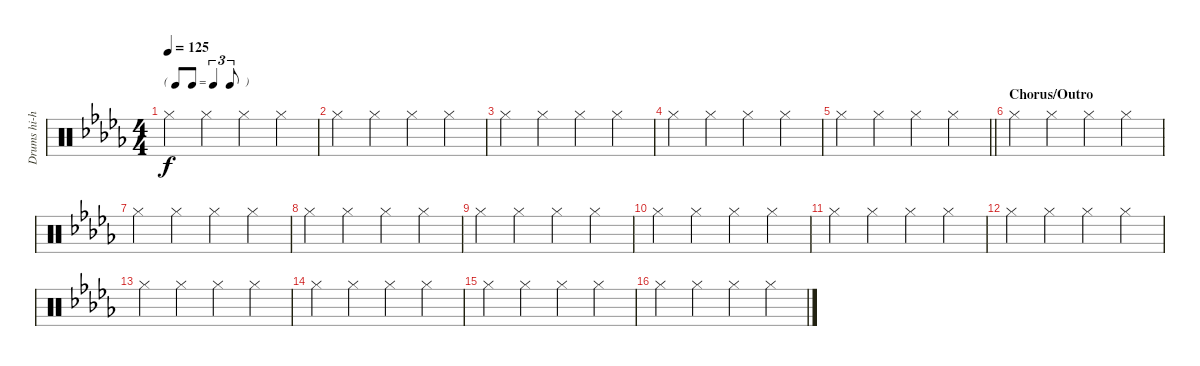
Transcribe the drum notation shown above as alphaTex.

\track ("Drums hi-hat" "Drums hi-h") {instrument percussion}
\staff {score}
\articulation defaults
\ts (4 4)
\tf triplet8th
\tempo 125
\clef neutral
\ks db "Hi-Hat (closed)".4{dy f} "Hi-Hat (closed)".4 "Hi-Hat (closed)".4 "Hi-Hat (closed)".4
|
"Hi-Hat (closed)".4 "Hi-Hat (closed)".4 "Hi-Hat (closed)".4 "Hi-Hat (closed)".4 |
"Hi-Hat (closed)".4 "Hi-Hat (closed)".4 "Hi-Hat (closed)".4 "Hi-Hat (closed)".4 |
"Hi-Hat (closed)".4 "Hi-Hat (closed)".4 "Hi-Hat (closed)".4 "Hi-Hat (closed)".4 |
\barLineRight lightlight "Hi-Hat (closed)".4 "Hi-Hat (closed)".4 "Hi-Hat (closed)".4 "Hi-Hat (closed)".4
|
\section ("" "Chorus/Outro")
"Hi-Hat (closed)".4 "Hi-Hat (closed)".4 "Hi-Hat (closed)".4 "Hi-Hat (closed)".4 |
"Hi-Hat (closed)".4 "Hi-Hat (closed)".4 "Hi-Hat (closed)".4 "Hi-Hat (closed)".4 |
"Hi-Hat (closed)".4 "Hi-Hat (closed)".4 "Hi-Hat (closed)".4 "Hi-Hat (closed)".4 |
"Hi-Hat (closed)".4 "Hi-Hat (closed)".4 "Hi-Hat (closed)".4 "Hi-Hat (closed)".4 |
"Hi-Hat (closed)".4 "Hi-Hat (closed)".4 "Hi-Hat (closed)".4 "Hi-Hat (closed)".4 |
"Hi-Hat (closed)".4 "Hi-Hat (closed)".4 "Hi-Hat (closed)".4 "Hi-Hat (closed)".4 |
"Hi-Hat (closed)".4 "Hi-Hat (closed)".4 "Hi-Hat (closed)".4 "Hi-Hat (closed)".4 |
"Hi-Hat (closed)".4 "Hi-Hat (closed)".4 "Hi-Hat (closed)".4 "Hi-Hat (closed)".4 |
"Hi-Hat (closed)".4 "Hi-Hat (closed)".4 "Hi-Hat (closed)".4 "Hi-Hat (closed)".4 |
"Hi-Hat (closed)".4 "Hi-Hat (closed)".4 "Hi-Hat (closed)".4 "Hi-Hat (closed)".4 |
"Hi-Hat (closed)".4 "Hi-Hat (closed)".4 "Hi-Hat (closed)".4 "Hi-Hat (closed)".4
